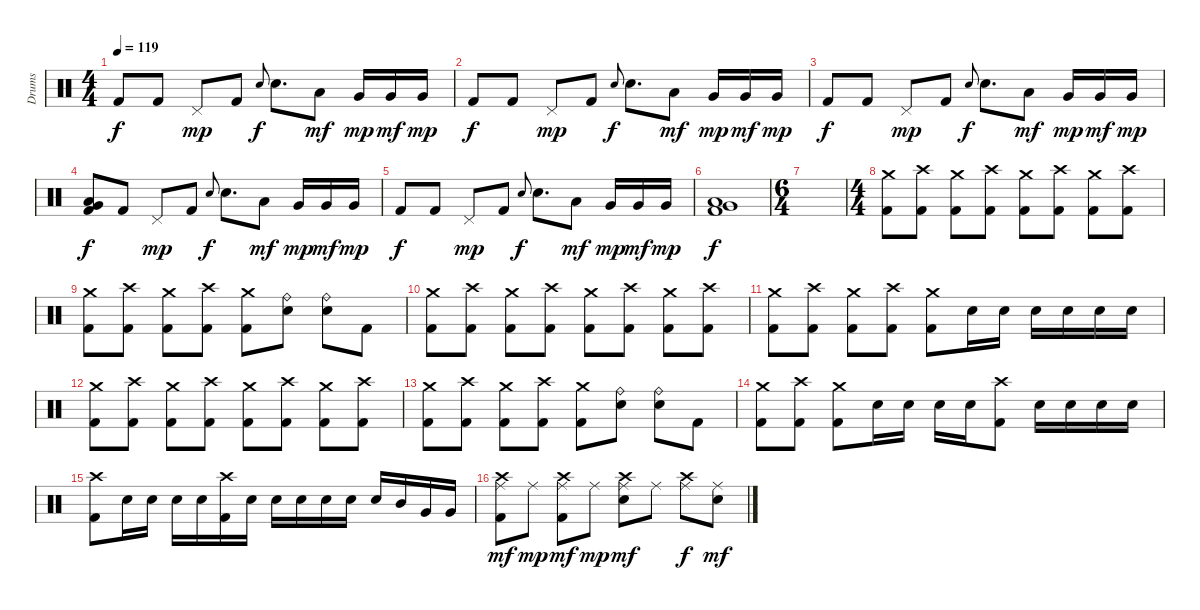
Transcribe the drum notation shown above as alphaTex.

\track ("Drums" "Drums") {instrument percussion}
\staff {score}
\articulation defaults
\ts (4 4)
\tempo 119
\clef neutral
\ks c "Kick (hit) 2".8{dy f} "Kick (hit) 2".8 "Pedal Hi-Hat (hit)".8{dy mp} "Kick (hit) 2".8 "Electric Snare (hit)".8{gr onbeat dy f} "Electric Snare (hit)".8{d} "Low Tom (hit)".8{dy mf} "Very Low Tom (hit)".16{dy mp} "Very Low Tom (hit)".16{dy mf} "Very Low Tom (hit)".16{dy mp}
|
"Kick (hit) 2".8{dy f} "Kick (hit) 2".8 "Pedal Hi-Hat (hit)".8{dy mp} "Kick (hit) 2".8 "Electric Snare (hit)".8{gr onbeat dy f} "Electric Snare (hit)".8{d} "Low Tom (hit)".8{dy mf} "Very Low Tom (hit)".16{dy mp} "Very Low Tom (hit)".16{dy mf} "Very Low Tom (hit)".16{dy mp} |
"Kick (hit) 2".8{dy f} "Kick (hit) 2".8 "Pedal Hi-Hat (hit)".8{dy mp} "Kick (hit) 2".8 "Electric Snare (hit)".8{gr onbeat dy f} "Electric Snare (hit)".8{d} "Low Tom (hit)".8{dy mf} "Very Low Tom (hit)".16{dy mp} "Very Low Tom (hit)".16{dy mf} "Very Low Tom (hit)".16{dy mp} |
("Low Floor Tom (hit)" "Very Low Tom (hit)" "Kick (hit) 2").8{dy f} "Kick (hit) 2".8 "Pedal Hi-Hat (hit)".8{dy mp} "Kick (hit) 2".8 "Electric Snare (hit)".8{gr onbeat dy f} "Electric Snare (hit)".8{d} "Low Tom (hit)".8{dy mf} "Very Low Tom (hit)".16{dy mp} "Very Low Tom (hit)".16{dy mf} "Very Low Tom (hit)".16{dy mp} |
"Kick (hit) 2".8{dy f} "Kick (hit) 2".8 "Pedal Hi-Hat (hit)".8{dy mp} "Kick (hit) 2".8 "Electric Snare (hit)".8{gr onbeat dy f} "Electric Snare (hit)".8{d} "Low Tom (hit)".8{dy mf} "Very Low Tom (hit)".16{dy mp} "Very Low Tom (hit)".16{dy mf} "Very Low Tom (hit)".16{dy mp} |
("Low Floor Tom (hit)" "Very Low Tom (hit)" "Kick (hit) 2").1{dy f} |
\ts (6 4)
|
\ts (4 4)
("Crash medium (hit)" "Kick (hit) 2").8 ("Crash high (hit)" "Kick (hit) 2").8 ("Crash medium (hit)" "Kick (hit) 2").8 ("Crash high (hit)" "Kick (hit) 2").8 ("Crash medium (hit)" "Kick (hit) 2").8 ("Crash high (hit)" "Kick (hit) 2").8 ("Crash medium (hit)" "Kick (hit) 2").8 ("Crash high (hit)" "Kick (hit) 2").8 |
("Crash medium (hit)" "Kick (hit) 2").8 ("Crash high (hit)" "Kick (hit) 2").8 ("Crash medium (hit)" "Kick (hit) 2").8 ("Crash high (hit)" "Kick (hit) 2").8 ("Crash medium (hit)" "Kick (hit) 2").8 ("Ride (bell)" "Electric Snare (hit)").8 ("Ride (bell)" "Electric Snare (hit)").8 "Kick (hit) 2".8 |
("Crash medium (hit)" "Kick (hit) 2").8 ("Crash high (hit)" "Kick (hit) 2").8 ("Crash medium (hit)" "Kick (hit) 2").8 ("Crash high (hit)" "Kick (hit) 2").8 ("Crash medium (hit)" "Kick (hit) 2").8 ("Crash high (hit)" "Kick (hit) 2").8 ("Crash medium (hit)" "Kick (hit) 2").8 ("Crash high (hit)" "Kick (hit) 2").8 |
("Crash medium (hit)" "Kick (hit) 2").8 ("Crash high (hit)" "Kick (hit) 2").8 ("Crash medium (hit)" "Kick (hit) 2").8 ("Crash high (hit)" "Kick (hit) 2").8 ("Crash medium (hit)" "Kick (hit) 2").8 "Electric Snare (hit)".16 "Electric Snare (hit)".16 "Electric Snare (hit)".16 "Electric Snare (hit)".16 "Electric Snare (hit)".16 "Electric Snare (hit)".16 |
("Crash medium (hit)" "Kick (hit) 2").8 ("Crash high (hit)" "Kick (hit) 2").8 ("Crash medium (hit)" "Kick (hit) 2").8 ("Crash high (hit)" "Kick (hit) 2").8 ("Crash medium (hit)" "Kick (hit) 2").8 ("Crash high (hit)" "Kick (hit) 2").8 ("Crash medium (hit)" "Kick (hit) 2").8 ("Crash high (hit)" "Kick (hit) 2").8 |
("Crash medium (hit)" "Kick (hit) 2").8 ("Crash high (hit)" "Kick (hit) 2").8 ("Crash medium (hit)" "Kick (hit) 2").8 ("Crash high (hit)" "Kick (hit) 2").8 ("Crash medium (hit)" "Kick (hit) 2").8 ("Ride (bell)" "Electric Snare (hit)").8 ("Ride (bell)" "Electric Snare (hit)").8 "Kick (hit) 2".8 |
("Crash medium (hit)" "Kick (hit) 2").8 ("Crash high (hit)" "Kick (hit) 2").8 ("Crash medium (hit)" "Kick (hit) 2").8 "Electric Snare (hit)".16 "Electric Snare (hit)".16 "Electric Snare (hit)".16 "Electric Snare (hit)".16 ("Crash high (hit)" "Kick (hit) 2").8 "Electric Snare (hit)".16 "Electric Snare (hit)".16 "Electric Snare (hit)".16 "Electric Snare (hit)".16 |
("Crash high (hit)" "Kick (hit) 2").8 "Electric Snare (hit)".16 "Electric Snare (hit)".16 "Electric Snare (hit)".16 "Electric Snare (hit)".16 ("Crash high (hit)" "Kick (hit) 2").16 "Electric Snare (hit)".16 "Electric Snare (hit)".16 "Electric Snare (hit)".16 "Electric Snare (hit)".16 "Electric Snare (hit)".16 "Electric Snare (hit)".16 "Mid Tom (hit)".16 "Very Low Tom (hit)".16 "Very Low Tom (hit)".16 |
("Crash high (hit)" "Ride (middle)" "Kick (hit) 2").8{dy mf} "Ride (middle)".8{dy mp} ("Crash high (hit)" "Ride (middle)" "Kick (hit) 2").8{dy mf} "Ride (middle)".8{dy mp} ("Crash high (hit)" "Ride (middle)" "Electric Snare (hit)").8{dy mf} "Ride (middle)".8 ("Crash high (hit)" "Ride (middle)").8{dy f} ("Ride (middle)" "Electric Snare (hit)").8{dy mf}
